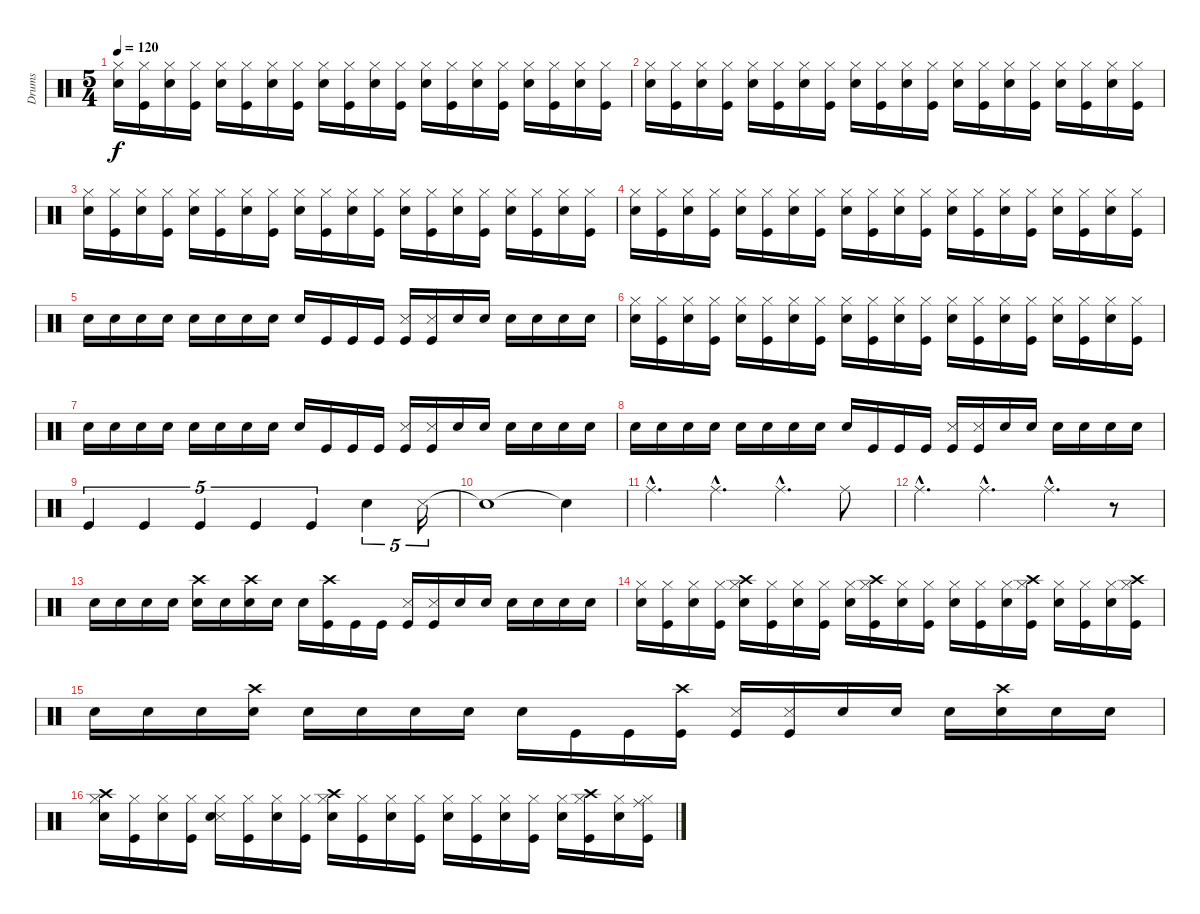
\track ("Drums" "Drums") {instrument percussion}
\staff {score}
\articulation defaults
\ts (5 4)
\tempo 120
\clef neutral
\ks c
("Hi-Hat (closed)" "Snare (hit) 2").16{dy f} ("Hi-Hat (closed)" "Kick (hit)").16 ("Hi-Hat (closed)" "Snare (hit) 2").16 ("Hi-Hat (closed)" "Kick (hit)").16 ("Hi-Hat (closed)" "Snare (hit) 2").16 ("Hi-Hat (closed)" "Kick (hit)").16 ("Hi-Hat (closed)" "Snare (hit) 2").16 ("Hi-Hat (closed)" "Kick (hit)").16 ("Hi-Hat (closed)" "Snare (hit) 2").16 ("Hi-Hat (closed)" "Kick (hit)").16 ("Hi-Hat (closed)" "Snare (hit) 2").16 ("Hi-Hat (closed)" "Kick (hit)").16 ("Hi-Hat (closed)" "Snare (hit) 2").16 ("Hi-Hat (closed)" "Kick (hit)").16 ("Hi-Hat (closed)" "Snare (hit) 2").16 ("Hi-Hat (closed)" "Kick (hit)").16 ("Hi-Hat (closed)" "Snare (hit) 2").16 ("Hi-Hat (closed)" "Kick (hit)").16 ("Hi-Hat (closed)" "Snare (hit) 2").16 ("Hi-Hat (closed)" "Kick (hit)").16 |
("Hi-Hat (closed)" "Snare (hit) 2").16 ("Hi-Hat (closed)" "Kick (hit)").16 ("Hi-Hat (closed)" "Snare (hit) 2").16 ("Hi-Hat (closed)" "Kick (hit)").16 ("Hi-Hat (closed)" "Snare (hit) 2").16 ("Hi-Hat (closed)" "Kick (hit)").16 ("Hi-Hat (closed)" "Snare (hit) 2").16 ("Hi-Hat (closed)" "Kick (hit)").16 ("Hi-Hat (closed)" "Snare (hit) 2").16 ("Hi-Hat (closed)" "Kick (hit)").16 ("Hi-Hat (closed)" "Snare (hit) 2").16 ("Hi-Hat (closed)" "Kick (hit)").16 ("Hi-Hat (closed)" "Snare (hit) 2").16 ("Hi-Hat (closed)" "Kick (hit)").16 ("Hi-Hat (closed)" "Snare (hit) 2").16 ("Hi-Hat (closed)" "Kick (hit)").16 ("Hi-Hat (closed)" "Snare (hit) 2").16 ("Hi-Hat (closed)" "Kick (hit)").16 ("Hi-Hat (closed)" "Snare (hit) 2").16 ("Hi-Hat (closed)" "Kick (hit)").16 |
("Hi-Hat (closed)" "Snare (hit) 2").16 ("Hi-Hat (closed)" "Kick (hit)").16 ("Hi-Hat (closed)" "Snare (hit) 2").16 ("Hi-Hat (closed)" "Kick (hit)").16 ("Hi-Hat (closed)" "Snare (hit) 2").16 ("Hi-Hat (closed)" "Kick (hit)").16 ("Hi-Hat (closed)" "Snare (hit) 2").16 ("Hi-Hat (closed)" "Kick (hit)").16 ("Hi-Hat (closed)" "Snare (hit) 2").16 ("Hi-Hat (closed)" "Kick (hit)").16 ("Hi-Hat (closed)" "Snare (hit) 2").16 ("Hi-Hat (closed)" "Kick (hit)").16 ("Hi-Hat (closed)" "Snare (hit) 2").16 ("Hi-Hat (closed)" "Kick (hit)").16 ("Hi-Hat (closed)" "Snare (hit) 2").16 ("Hi-Hat (closed)" "Kick (hit)").16 ("Hi-Hat (closed)" "Snare (hit) 2").16 ("Hi-Hat (closed)" "Kick (hit)").16 ("Hi-Hat (closed)" "Snare (hit) 2").16 ("Hi-Hat (closed)" "Kick (hit)").16 |
("Hi-Hat (closed)" "Snare (hit) 2").16 ("Hi-Hat (closed)" "Kick (hit)").16 ("Hi-Hat (closed)" "Snare (hit) 2").16 ("Hi-Hat (closed)" "Kick (hit)").16 ("Hi-Hat (closed)" "Snare (hit) 2").16 ("Hi-Hat (closed)" "Kick (hit)").16 ("Hi-Hat (closed)" "Snare (hit) 2").16 ("Hi-Hat (closed)" "Kick (hit)").16 ("Hi-Hat (closed)" "Snare (hit) 2").16 ("Hi-Hat (closed)" "Kick (hit)").16 ("Hi-Hat (closed)" "Snare (hit) 2").16 ("Hi-Hat (closed)" "Kick (hit)").16 ("Hi-Hat (closed)" "Snare (hit) 2").16 ("Hi-Hat (closed)" "Kick (hit)").16 ("Hi-Hat (closed)" "Snare (hit) 2").16 ("Hi-Hat (closed)" "Kick (hit)").16 ("Hi-Hat (closed)" "Snare (hit) 2").16 ("Hi-Hat (closed)" "Kick (hit)").16 ("Hi-Hat (closed)" "Snare (hit) 2").16 ("Hi-Hat (closed)" "Kick (hit)").16 |
"Snare (hit) 2".16 "Snare (hit) 2".16 "Snare (hit) 2".16 "Snare (hit) 2".16 "Snare (hit) 2".16 "Snare (hit) 2".16 "Snare (hit) 2".16 "Snare (hit) 2".16 "Snare (hit) 2".16 "Kick (hit)".16 "Kick (hit)".16 "Kick (hit)".16 ("Snare (side stick) 3" "Kick (hit)").16 ("Snare (side stick) 3" "Kick (hit)").16 "Snare (hit) 2".16 "Snare (hit) 2".16 "Snare (hit) 2".16 "Snare (hit) 2".16 "Snare (hit) 2".16 "Snare (hit) 2".16 |
("Hi-Hat (closed)" "Snare (hit) 2").16 ("Hi-Hat (closed)" "Kick (hit)").16 ("Hi-Hat (closed)" "Snare (hit) 2").16 ("Hi-Hat (closed)" "Kick (hit)").16 ("Hi-Hat (closed)" "Snare (hit) 2").16 ("Hi-Hat (closed)" "Kick (hit)").16 ("Hi-Hat (closed)" "Snare (hit) 2").16 ("Hi-Hat (closed)" "Kick (hit)").16 ("Hi-Hat (closed)" "Snare (hit) 2").16 ("Hi-Hat (closed)" "Kick (hit)").16 ("Hi-Hat (closed)" "Snare (hit) 2").16 ("Hi-Hat (closed)" "Kick (hit)").16 ("Hi-Hat (closed)" "Snare (hit) 2").16 ("Hi-Hat (closed)" "Kick (hit)").16 ("Hi-Hat (closed)" "Snare (hit) 2").16 ("Hi-Hat (closed)" "Kick (hit)").16 ("Hi-Hat (closed)" "Snare (hit) 2").16 ("Hi-Hat (closed)" "Kick (hit)").16 ("Hi-Hat (closed)" "Snare (hit) 2").16 ("Hi-Hat (closed)" "Kick (hit)").16 |
"Snare (hit) 2".16 "Snare (hit) 2".16 "Snare (hit) 2".16 "Snare (hit) 2".16 "Snare (hit) 2".16 "Snare (hit) 2".16 "Snare (hit) 2".16 "Snare (hit) 2".16 "Snare (hit) 2".16 "Kick (hit)".16 "Kick (hit)".16 "Kick (hit)".16 ("Snare (side stick) 3" "Kick (hit)").16 ("Snare (side stick) 3" "Kick (hit)").16 "Snare (hit) 2".16 "Snare (hit) 2".16 "Snare (hit) 2".16 "Snare (hit) 2".16 "Snare (hit) 2".16 "Snare (hit) 2".16 |
"Snare (hit) 2".16 "Snare (hit) 2".16 "Snare (hit) 2".16 "Snare (hit) 2".16 "Snare (hit) 2".16 "Snare (hit) 2".16 "Snare (hit) 2".16 "Snare (hit) 2".16 "Snare (hit) 2".16 "Kick (hit)".16 "Kick (hit)".16 "Kick (hit)".16 ("Snare (side stick) 3" "Kick (hit)").16 ("Snare (side stick) 3" "Kick (hit)").16 "Snare (hit) 2".16 "Snare (hit) 2".16 "Snare (hit) 2".16 "Snare (hit) 2".16 "Snare (hit) 2".16 "Snare (hit) 2".16 |
"Kick (hit)".4{tu (5 4)} "Kick (hit)".4{tu (5 4)} "Kick (hit)".4{tu (5 4)} "Kick (hit)".4{tu (5 4)} "Kick (hit)".4{tu (5 4)} "Snare (hit) 2".4{tu (5 4)} "Snare (side stick) 3".16{tu (5 4)} |
"Snare (hit)"{t}.1 "Snare (hit)"{t}.4 |
"Ride (middle)"{hac}.4{d} "Ride (middle)"{hac}.4{d} "Ride (middle)"{hac}.4{d} "Ride (middle)".8 |
"Ride (middle)"{hac}.4{d} "Ride (middle)"{hac}.4{d} "Ride (middle)"{hac}.4{d} r.8 |
"Snare (hit) 2".16 "Snare (hit) 2".16 "Snare (hit) 2".16 "Snare (hit) 2".16 ("Crash high (hit)" "Snare (hit) 2").16 "Snare (hit) 2".16 ("Crash high (hit)" "Snare (hit) 2").16 "Snare (hit) 2".16 "Snare (hit) 2".16 ("Crash high (hit)" "Kick (hit)").16 "Kick (hit)".16 "Kick (hit)".16 ("Snare (side stick) 3" "Kick (hit)").16 ("Snare (side stick) 3" "Kick (hit)").16 "Snare (hit) 2".16 "Snare (hit) 2".16 "Snare (hit) 2".16 "Snare (hit) 2".16 "Snare (hit) 2".16 "Snare (hit) 2".16 |
("Hi-Hat (closed)" "Snare (hit) 2").16 ("Hi-Hat (closed)" "Kick (hit)").16 ("Hi-Hat (closed)" "Snare (hit) 2").16 ("Hi-Hat (closed)" "Kick (hit)").16 ("Crash high (hit)" "Hi-Hat (closed)" "Snare (hit) 2").16 ("Hi-Hat (closed)" "Kick (hit)").16 ("Hi-Hat (closed)" "Snare (hit) 2").16 ("Hi-Hat (closed)" "Kick (hit)").16 ("Hi-Hat (closed)" "Snare (hit) 2").16 ("Crash high (hit)" "Hi-Hat (closed)" "Kick (hit)").16 ("Hi-Hat (closed)" "Snare (hit) 2").16 ("Hi-Hat (closed)" "Kick (hit)").16 ("Hi-Hat (closed)" "Snare (hit) 2").16 ("Hi-Hat (closed)" "Kick (hit)").16 ("Hi-Hat (closed)" "Snare (hit) 2").16 ("Crash high (hit)" "Hi-Hat (closed)" "Kick (hit)").16 ("Hi-Hat (closed)" "Snare (hit) 2").16 ("Hi-Hat (closed)" "Kick (hit)").16 ("Hi-Hat (closed)" "Snare (hit) 2").16 ("Crash high (hit)" "Hi-Hat (closed)" "Kick (hit)").16 |
"Snare (hit) 2".16 "Snare (hit) 2".16 "Snare (hit) 2".16 ("Crash high (hit)" "Snare (hit) 2").16 "Snare (hit) 2".16 "Snare (hit) 2".16 "Snare (hit) 2".16 "Snare (hit) 2".16 "Snare (hit) 2".16 "Kick (hit)".16 "Kick (hit)".16 ("Crash high (hit)" "Kick (hit)").16 ("Snare (side stick) 3" "Kick (hit)").16 ("Snare (side stick) 3" "Kick (hit)").16 "Snare (hit) 2".16 "Snare (hit) 2".16 "Snare (hit) 2".16 ("Crash high (hit)" "Snare (hit) 2").16 "Snare (hit) 2".16 "Snare (hit) 2".16 |
("Crash high (hit)" "Hi-Hat (closed)" "Snare (hit) 2").16 ("Hi-Hat (closed)" "Kick (hit)").16 ("Hi-Hat (closed)" "Snare (hit) 2").16 ("Hi-Hat (closed)" "Kick (hit)").16 ("Snare (side stick) 3" "Hi-Hat (closed)" "Snare (hit) 2").16 ("Hi-Hat (closed)" "Kick (hit)").16 ("Hi-Hat (closed)" "Snare (hit) 2").16 ("Hi-Hat (closed)" "Kick (hit)").16 ("Crash high (hit)" "Hi-Hat (closed)" "Snare (hit) 2").16 ("Hi-Hat (closed)" "Kick (hit)").16 ("Hi-Hat (closed)" "Snare (hit) 2").16 ("Hi-Hat (closed)" "Kick (hit)").16 ("Hi-Hat (closed)" "Snare (hit) 2").16 ("Hi-Hat (closed)" "Kick (hit)").16 ("Hi-Hat (closed)" "Snare (hit) 2").16 ("Hi-Hat (closed)" "Kick (hit)").16 ("Hi-Hat (closed)" "Snare (hit) 2").16 ("Crash high (hit)" "Hi-Hat (closed)" "Kick (hit)").16 ("Hi-Hat (closed)" "Snare (hit) 2").16 ("Ride (middle)" "Hi-Hat (closed)" "Kick (hit)").16
